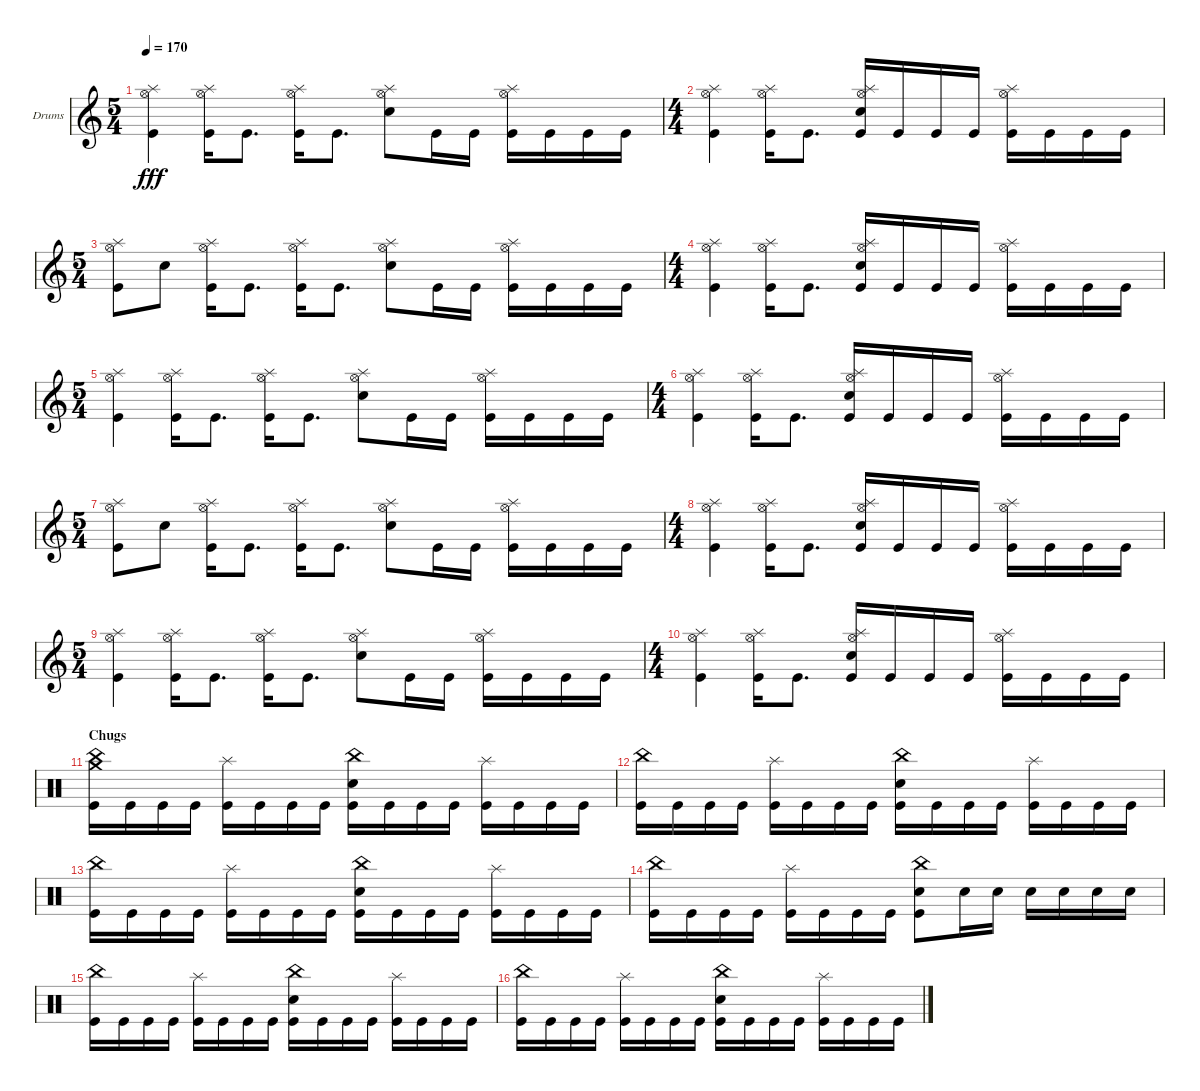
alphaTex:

\defaultSystemsLayout 4
\bracketExtendMode groupsimilarinstruments
\firstSystemTrackNameOrientation horizontal
\otherSystemsTrackNameOrientation horizontal
\track ("Chris Adler" "Drums") {instrument percussion}
\staff {score}
\articulation defaults
\ts (5 4)
\tempo 170
\clef g2
\ks c
("Kick (hit)" "Hi-Hat (open)" "Splash (hit)").4{dy fff} ("Kick (hit)" "Hi-Hat (open)" "Splash (hit)").16 "Kick (hit)".8{d} ("Kick (hit)" "Hi-Hat (open)" "Splash (hit)").16 "Kick (hit)".8{d} ("Snare (hit) 2" "Hi-Hat (open)" "Splash (hit)").8 "Kick (hit)".16 "Kick (hit)".16 ("Kick (hit)" "Hi-Hat (open)" "Splash (hit)").16 "Kick (hit)".16 "Kick (hit)".16 "Kick (hit)".16 |
\ts (4 4)
("Kick (hit)" "Hi-Hat (open)" "Splash (hit)").4 ("Kick (hit)" "Hi-Hat (open)" "Splash (hit)").16 "Kick (hit)".8{d} ("Kick (hit)" "Snare (hit) 2" "Hi-Hat (open)" "Splash (hit)").16 "Kick (hit)".16 "Kick (hit)".16 "Kick (hit)".16 ("Kick (hit)" "Hi-Hat (open)" "Splash (hit)").16 "Kick (hit)".16 "Kick (hit)".16 "Kick (hit)".16 |
\ts (5 4)
("Kick (hit)" "Hi-Hat (open)" "Splash (hit)").8 "Snare (hit) 2".8 ("Kick (hit)" "Hi-Hat (open)" "Splash (hit)").16 "Kick (hit)".8{d} ("Kick (hit)" "Hi-Hat (open)" "Splash (hit)").16 "Kick (hit)".8{d} ("Hi-Hat (open)" "Snare (hit) 2" "Splash (hit)").8 "Kick (hit)".16 "Kick (hit)".16 ("Kick (hit)" "Hi-Hat (open)" "Splash (hit)").16 "Kick (hit)".16 "Kick (hit)".16 "Kick (hit)".16 |
\ts (4 4)
("Kick (hit)" "Hi-Hat (open)" "Splash (hit)").4 ("Kick (hit)" "Hi-Hat (open)" "Splash (hit)").16 "Kick (hit)".8{d} ("Kick (hit)" "Snare (hit) 2" "Hi-Hat (open)" "Splash (hit)").16 "Kick (hit)".16 "Kick (hit)".16 "Kick (hit)".16 ("Kick (hit)" "Hi-Hat (open)" "Splash (hit)").16 "Kick (hit)".16 "Kick (hit)".16 "Kick (hit)".16 |
\ts (5 4)
("Kick (hit)" "Hi-Hat (open)" "Splash (hit)").4 ("Kick (hit)" "Hi-Hat (open)" "Splash (hit)").16 "Kick (hit)".8{d} ("Kick (hit)" "Hi-Hat (open)" "Splash (hit)").16 "Kick (hit)".8{d} ("Snare (hit) 2" "Hi-Hat (open)" "Splash (hit)").8 "Kick (hit)".16 "Kick (hit)".16 ("Kick (hit)" "Hi-Hat (open)" "Splash (hit)").16 "Kick (hit)".16 "Kick (hit)".16 "Kick (hit)".16 |
\ts (4 4)
("Kick (hit)" "Hi-Hat (open)" "Splash (hit)").4 ("Kick (hit)" "Hi-Hat (open)" "Splash (hit)").16 "Kick (hit)".8{d} ("Kick (hit)" "Snare (hit) 2" "Hi-Hat (open)" "Splash (hit)").16 "Kick (hit)".16 "Kick (hit)".16 "Kick (hit)".16 ("Kick (hit)" "Hi-Hat (open)" "Splash (hit)").16 "Kick (hit)".16 "Kick (hit)".16 "Kick (hit)".16 |
\ts (5 4)
("Kick (hit)" "Hi-Hat (open)" "Splash (hit)").8 "Snare (hit) 2".8 ("Kick (hit)" "Hi-Hat (open)" "Splash (hit)").16 "Kick (hit)".8{d} ("Kick (hit)" "Hi-Hat (open)" "Splash (hit)").16 "Kick (hit)".8{d} ("Hi-Hat (open)" "Snare (hit) 2" "Splash (hit)").8 "Kick (hit)".16 "Kick (hit)".16 ("Kick (hit)" "Hi-Hat (open)" "Splash (hit)").16 "Kick (hit)".16 "Kick (hit)".16 "Kick (hit)".16 |
\ts (4 4)
("Kick (hit)" "Hi-Hat (open)" "Splash (hit)").4 ("Kick (hit)" "Hi-Hat (open)" "Splash (hit)").16 "Kick (hit)".8{d} ("Kick (hit)" "Snare (hit) 2" "Hi-Hat (open)" "Splash (hit)").16 "Kick (hit)".16 "Kick (hit)".16 "Kick (hit)".16 ("Kick (hit)" "Hi-Hat (open)" "Splash (hit)").16 "Kick (hit)".16 "Kick (hit)".16 "Kick (hit)".16 |
\ts (5 4)
("Kick (hit)" "Hi-Hat (open)" "Splash (hit)").4 ("Kick (hit)" "Hi-Hat (open)" "Splash (hit)").16 "Kick (hit)".8{d} ("Kick (hit)" "Hi-Hat (open)" "Splash (hit)").16 "Kick (hit)".8{d} ("Snare (hit) 2" "Hi-Hat (open)" "Splash (hit)").8 "Kick (hit)".16 "Kick (hit)".16 ("Kick (hit)" "Hi-Hat (open)" "Splash (hit)").16 "Kick (hit)".16 "Kick (hit)".16 "Kick (hit)".16 |
\ts (4 4)
("Kick (hit)" "Hi-Hat (open)" "Splash (hit)").4 ("Kick (hit)" "Hi-Hat (open)" "Splash (hit)").16 "Kick (hit)".8{d} ("Kick (hit)" "Snare (hit) 2" "Hi-Hat (open)" "Splash (hit)").16 "Kick (hit)".16 "Kick (hit)".16 "Kick (hit)".16 ("Kick (hit)" "Hi-Hat (open)" "Splash (hit)").16 "Kick (hit)".16 "Kick (hit)".16 "Kick (hit)".16 |
\section ("" "Chugs")
\clef neutral
("Kick (hit)" "China (hit)" "Crash medium (hit)").16 "Kick (hit)".16 "Kick (hit)".16 "Kick (hit)".16 ("Kick (hit)" "Splash (hit)").16 "Kick (hit)".16 "Kick (hit)".16 "Kick (hit)".16 ("Kick (hit)" "Snare (hit) 2" "China (hit)").16 "Kick (hit)".16 "Kick (hit)".16 "Kick (hit)".16 ("Kick (hit)" "Splash (hit)").16 "Kick (hit)".16 "Kick (hit)".16 "Kick (hit)".16 |
("Kick (hit)" "China (hit)").16 "Kick (hit)".16 "Kick (hit)".16 "Kick (hit)".16 ("Kick (hit)" "Splash (hit)").16 "Kick (hit)".16 "Kick (hit)".16 "Kick (hit)".16 ("Kick (hit)" "Snare (hit) 2" "China (hit)").16 "Kick (hit)".16 "Kick (hit)".16 "Kick (hit)".16 ("Kick (hit)" "Splash (hit)").16 "Kick (hit)".16 "Kick (hit)".16 "Kick (hit)".16 |
("Kick (hit)" "China (hit)").16 "Kick (hit)".16 "Kick (hit)".16 "Kick (hit)".16 ("Kick (hit)" "Splash (hit)").16 "Kick (hit)".16 "Kick (hit)".16 "Kick (hit)".16 ("Kick (hit)" "Snare (hit) 2" "China (hit)").16 "Kick (hit)".16 "Kick (hit)".16 "Kick (hit)".16 ("Kick (hit)" "Splash (hit)").16 "Kick (hit)".16 "Kick (hit)".16 "Kick (hit)".16 |
("Kick (hit)" "China (hit)").16 "Kick (hit)".16 "Kick (hit)".16 "Kick (hit)".16 ("Kick (hit)" "Splash (hit)").16 "Kick (hit)".16 "Kick (hit)".16 "Kick (hit)".16 ("Kick (hit)" "Snare (hit) 2" "China (hit)").8 "Snare (hit) 2".16 "Snare (hit) 2".16 "Snare (hit) 2".16 "Snare (hit) 2".16 "Snare (hit) 2".16 "Snare (hit) 2".16 |
("Kick (hit)" "China (hit)").16 "Kick (hit)".16 "Kick (hit)".16 "Kick (hit)".16 ("Kick (hit)" "Splash (hit)").16 "Kick (hit)".16 "Kick (hit)".16 "Kick (hit)".16 ("Kick (hit)" "Snare (hit) 2" "China (hit)").16 "Kick (hit)".16 "Kick (hit)".16 "Kick (hit)".16 ("Kick (hit)" "Splash (hit)").16 "Kick (hit)".16 "Kick (hit)".16 "Kick (hit)".16 |
("Kick (hit)" "China (hit)").16 "Kick (hit)".16 "Kick (hit)".16 "Kick (hit)".16 ("Kick (hit)" "Splash (hit)").16 "Kick (hit)".16 "Kick (hit)".16 "Kick (hit)".16 ("Kick (hit)" "Snare (hit) 2" "China (hit)").16 "Kick (hit)".16 "Kick (hit)".16 "Kick (hit)".16 ("Kick (hit)" "Splash (hit)").16 "Kick (hit)".16 "Kick (hit)".16 "Kick (hit)".16
